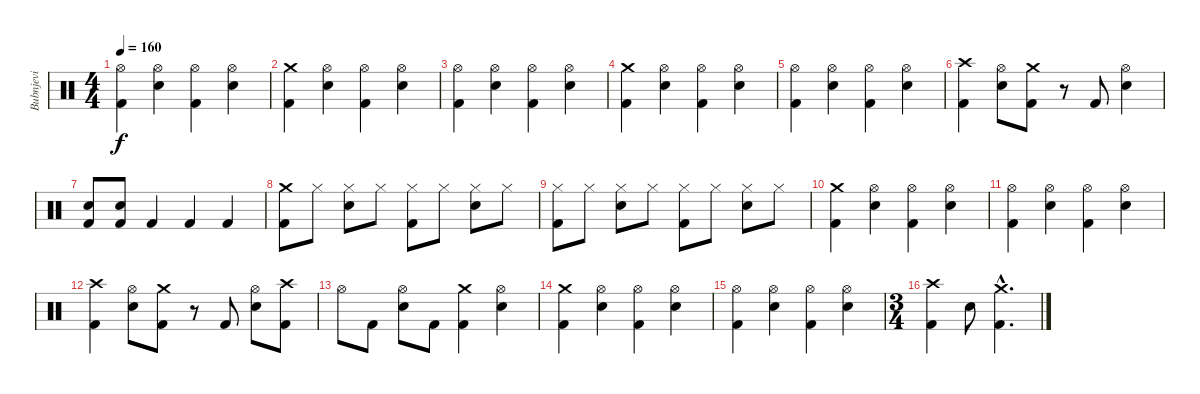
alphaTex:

\track ("Bubnjevi" "Bubnjevi") {instrument percussion}
\staff {score}
\articulation defaults
\ts (4 4)
\tempo 160
\clef neutral
\ks c
("Hi-Hat (open)" "Kick (hit) 2").4{dy f} ("Hi-Hat (open)" "Snare (hit) 2").4 ("Hi-Hat (open)" "Kick (hit) 2").4 ("Hi-Hat (open)" "Snare (hit) 2").4 |
("Crash medium (hit)" "Kick (hit) 2").4 ("Hi-Hat (open)" "Snare (hit) 2").4 ("Hi-Hat (open)" "Kick (hit) 2").4 ("Hi-Hat (open)" "Snare (hit) 2").4 |
("Hi-Hat (open)" "Kick (hit) 2").4 ("Hi-Hat (open)" "Snare (hit) 2").4 ("Hi-Hat (open)" "Kick (hit) 2").4 ("Hi-Hat (open)" "Snare (hit) 2").4 |
("Crash medium (hit)" "Kick (hit) 2").4 ("Hi-Hat (open)" "Snare (hit) 2").4 ("Hi-Hat (open)" "Kick (hit) 2").4 ("Hi-Hat (open)" "Snare (hit) 2").4 |
("Hi-Hat (open)" "Kick (hit) 2").4 ("Hi-Hat (open)" "Snare (hit) 2").4 ("Hi-Hat (open)" "Kick (hit) 2").4 ("Hi-Hat (open)" "Snare (hit) 2").4 |
("Crash high (hit)" "Kick (hit) 2").4 ("Hi-Hat (open)" "Snare (hit) 2").8 ("Crash medium (hit)" "Kick (hit) 2").8 r.8 "Kick (hit) 2".8 ("Hi-Hat (open)" "Snare (hit) 2").4 |
("Snare (hit) 2" "Kick (hit) 2").8 ("Snare (hit) 2" "Kick (hit) 2").8 "Kick (hit) 2".4 "Kick (hit) 2".4 "Kick (hit) 2".4 |
("Crash medium (hit)" "Kick (hit) 2").8 "Hi-Hat (closed)".8 ("Hi-Hat (closed)" "Snare (hit) 2").8 "Hi-Hat (closed)".8 ("Hi-Hat (closed)" "Kick (hit) 2").8 "Hi-Hat (closed)".8 ("Hi-Hat (closed)" "Snare (hit) 2").8 "Hi-Hat (closed)".8 |
("Hi-Hat (closed)" "Kick (hit) 2").8 "Hi-Hat (closed)".8 ("Hi-Hat (closed)" "Snare (hit) 2").8 "Hi-Hat (closed)".8 ("Hi-Hat (closed)" "Kick (hit) 2").8 "Hi-Hat (closed)".8 ("Hi-Hat (closed)" "Snare (hit) 2").8 "Hi-Hat (closed)".8 |
("Crash medium (hit)" "Kick (hit) 2").4 ("Hi-Hat (open)" "Snare (hit) 2").4 ("Hi-Hat (open)" "Kick (hit) 2").4 ("Hi-Hat (open)" "Snare (hit) 2").4 |
("Hi-Hat (open)" "Kick (hit) 2").4 ("Hi-Hat (open)" "Snare (hit) 2").4 ("Hi-Hat (open)" "Kick (hit) 2").4 ("Hi-Hat (open)" "Snare (hit) 2").4 |
("Crash high (hit)" "Kick (hit) 2").4 ("Hi-Hat (open)" "Snare (hit) 2").8 ("Crash medium (hit)" "Kick (hit) 2").8 r.8 "Kick (hit) 2".8 ("Hi-Hat (open)" "Snare (hit) 2").8 ("Crash high (hit)" "Kick (hit) 2").8 |
"Hi-Hat (open)".8 "Kick (hit) 2".8 ("Hi-Hat (open)" "Snare (hit) 2").8 "Kick (hit) 2".8 ("Crash medium (hit)" "Kick (hit) 2").4 ("Hi-Hat (open)" "Snare (hit) 2").4 |
("Crash medium (hit)" "Kick (hit) 2").4 ("Hi-Hat (open)" "Snare (hit) 2").4 ("Hi-Hat (open)" "Kick (hit) 2").4 ("Hi-Hat (open)" "Snare (hit) 2").4 |
("Hi-Hat (open)" "Kick (hit) 2").4 ("Hi-Hat (open)" "Snare (hit) 2").4 ("Hi-Hat (open)" "Kick (hit) 2").4 ("Hi-Hat (open)" "Snare (hit) 2").4 |
\ts (3 4)
("Crash high (hit)" "Kick (hit) 2").4 "Snare (hit) 2".8 ("Crash medium (hit)"{hac} "Kick (hit) 2"{hac}).4{d}
